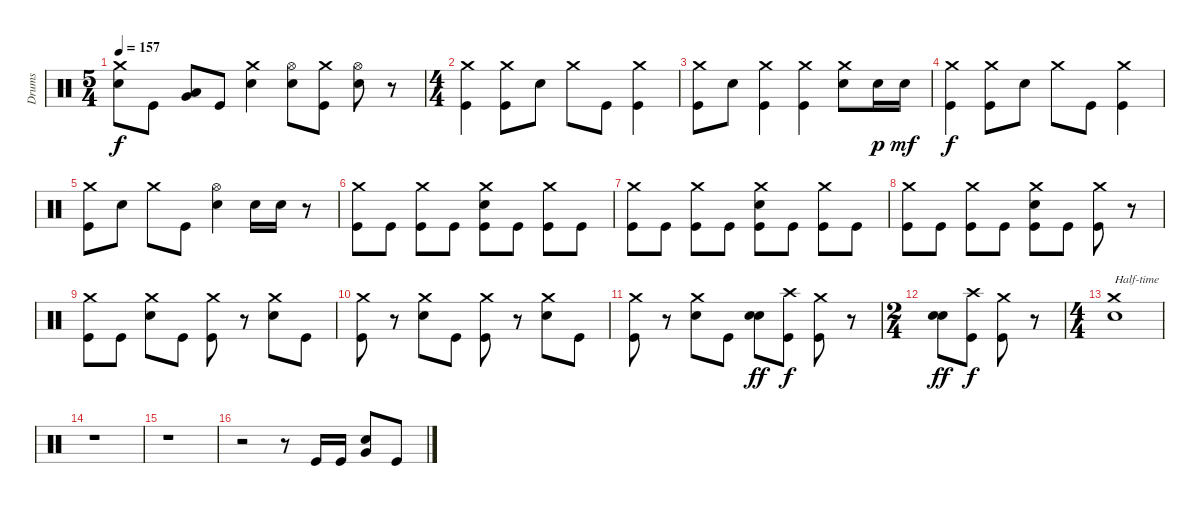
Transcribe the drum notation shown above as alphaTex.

\track ("Drums" "Drums") {instrument percussion}
\staff {score}
\articulation defaults
\ts (5 4)
\tempo 157
\clef neutral
\ks c
("Crash medium (hit)" "Electric Snare (hit)").8{dy f} "Kick (hit)".8 ("Low Tom (hit)" "Very Low Tom (hit)").8 "Kick (hit)".8 ("Crash medium (hit)" "Electric Snare (hit)").4 ("Hi-Hat (open)" "Electric Snare (hit)").8 ("Crash medium (hit)" "Kick (hit)").8 ("Hi-Hat (open)" "Electric Snare (hit)").8 r.8 |
\ts (4 4)
("Crash medium (hit)" "Kick (hit)").4 ("Crash medium (hit)" "Kick (hit)").8 "Electric Snare (hit)".8 "Crash medium (hit)".8 "Kick (hit)".8 ("Crash medium (hit)" "Kick (hit)").4 |
("Crash medium (hit)" "Kick (hit)").8 "Electric Snare (hit)".8 ("Crash medium (hit)" "Kick (hit)").4 ("Crash medium (hit)" "Kick (hit)").4 ("Crash medium (hit)" "Electric Snare (hit)").8 "Electric Snare (hit)".16{dy p} "Electric Snare (hit)".16{dy mf} |
("Crash medium (hit)" "Kick (hit)").4{dy f} ("Crash medium (hit)" "Kick (hit)").8 "Electric Snare (hit)".8 "Crash medium (hit)".8 "Kick (hit)".8 ("Crash medium (hit)" "Kick (hit)").4 |
("Crash medium (hit)" "Kick (hit)").8 "Electric Snare (hit)".8 "Crash medium (hit)".8 "Kick (hit)".8 ("Hi-Hat (open)" "Electric Snare (hit)").4 "Electric Snare (hit)".16 "Electric Snare (hit)".16 r.8 |
("Crash medium (hit)" "Kick (hit)").8 "Kick (hit)".8 ("Crash medium (hit)" "Kick (hit)").8 "Kick (hit)".8 ("Crash medium (hit)" "Electric Snare (hit)" "Kick (hit)").8 "Kick (hit)".8 ("Crash medium (hit)" "Kick (hit)").8 "Kick (hit)".8 |
("Crash medium (hit)" "Kick (hit)").8 "Kick (hit)".8 ("Crash medium (hit)" "Kick (hit)").8 "Kick (hit)".8 ("Crash medium (hit)" "Electric Snare (hit)" "Kick (hit)").8 "Kick (hit)".8 ("Crash medium (hit)" "Kick (hit)").8 "Kick (hit)".8 |
("Crash medium (hit)" "Kick (hit)").8 "Kick (hit)".8 ("Crash medium (hit)" "Kick (hit)").8 "Kick (hit)".8 ("Crash medium (hit)" "Electric Snare (hit)" "Kick (hit)").8 "Kick (hit)".8 ("Crash medium (hit)" "Kick (hit)").8 r.8 |
("Crash medium (hit)" "Kick (hit)").8 "Kick (hit)".8 ("Crash medium (hit)" "Electric Snare (hit)").8 "Kick (hit)".8 ("Crash medium (hit)" "Kick (hit)").8 r.8 ("Crash medium (hit)" "Electric Snare (hit)").8 "Kick (hit)".8 |
("Crash medium (hit)" "Kick (hit)").8 r.8 ("Crash medium (hit)" "Electric Snare (hit)").8 "Kick (hit)".8 ("Crash medium (hit)" "Kick (hit)").8 r.8 ("Crash medium (hit)" "Electric Snare (hit)").8 "Kick (hit)".8 |
("Crash medium (hit)" "Kick (hit)").8 r.8 ("Crash medium (hit)" "Electric Snare (hit)").8 "Kick (hit)".8 ("Electric Snare (hit)" "Electric Snare (hit)").8{bd 240 dy ff} ("Crash high (hit)" "Kick (hit)").8{dy f} ("Crash medium (hit)" "Kick (hit)").8 r.8 |
\ts (2 4)
("Electric Snare (hit)" "Electric Snare (hit)").8{bd 240 dy ff} ("Crash high (hit)" "Kick (hit)").8{dy f} ("Crash medium (hit)" "Kick (hit)").8 r.8 |
\ts (4 4)
("Crash medium (hit)" "Electric Snare (hit)").1{txt "Half-time"} |
r.1 |
r.1 |
r.2 r.8 "Kick (hit)".16 "Kick (hit)".16 ("Very Low Tom (hit)" "Electric Snare (hit)").8 "Kick (hit)".8
